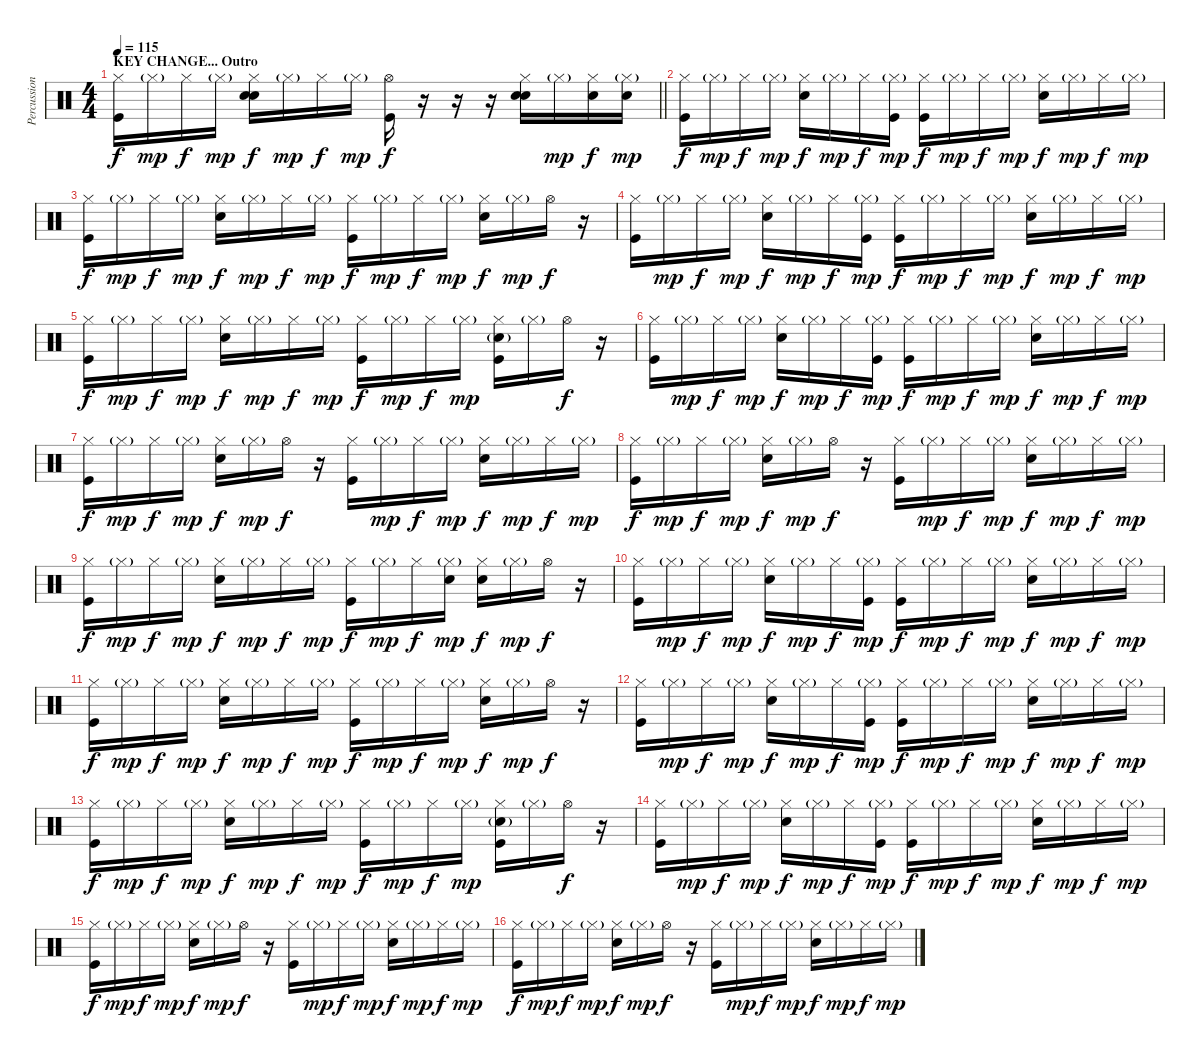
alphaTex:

\track ("Percussion" "Percussion") {instrument percussion bank 177}
\staff {score}
\articulation defaults
\ts (4 4)
\section ("" "KEY CHANGE... Outro")
\tempo 115
\clef neutral
\barLineRight lightlight
\ks c
("Hi-Hat (closed)" "Kick (hit)").16{dy f} "Hi-Hat (closed)"{g}.16{dy mp} "Hi-Hat (closed)".16{dy f} "Hi-Hat (closed)"{g}.16{dy mp} ("Hi-Hat (closed)" "Hand Clap (hit)" "Snare (hit) 2").16{dy f} "Hi-Hat (closed)"{g}.16{dy mp} "Hi-Hat (closed)".16{dy f} "Hi-Hat (closed)"{g}.16{dy mp} ("Hi-Hat (open)" "Kick (hit)").16{dy f} r.16 r.16 r.16 ("Hi-Hat (closed)" "Hand Clap (hit)" "Snare (hit) 2").16 "Hi-Hat (closed)"{g}.16{dy mp} ("Hi-Hat (closed)" "Snare (hit) 2").16{dy f} ("Hi-Hat (closed)"{g} "Snare (hit) 2").16{dy mp} |
("Hi-Hat (closed)" "Kick (hit)").16{dy f} "Hi-Hat (closed)"{g}.16{dy mp} "Hi-Hat (closed)".16{dy f} "Hi-Hat (closed)"{g}.16{dy mp} ("Hi-Hat (closed)" "Snare (hit) 2").16{dy f} "Hi-Hat (closed)"{g}.16{dy mp} "Hi-Hat (closed)".16{dy f} ("Hi-Hat (closed)"{g} "Kick (hit)").16{dy mp} ("Hi-Hat (closed)" "Kick (hit)").16{dy f} "Hi-Hat (closed)"{g}.16{dy mp} "Hi-Hat (closed)".16{dy f} "Hi-Hat (closed)"{g}.16{dy mp} ("Hi-Hat (closed)" "Snare (hit) 2").16{dy f} "Hi-Hat (closed)"{g}.16{dy mp} "Hi-Hat (closed)".16{dy f} "Hi-Hat (closed)"{g}.16{dy mp} |
("Hi-Hat (closed)" "Kick (hit)").16{dy f} "Hi-Hat (closed)"{g}.16{dy mp} "Hi-Hat (closed)".16{dy f} "Hi-Hat (closed)"{g}.16{dy mp} ("Hi-Hat (closed)" "Snare (hit) 2").16{dy f} "Hi-Hat (closed)"{g}.16{dy mp} "Hi-Hat (closed)".16{dy f} "Hi-Hat (closed)"{g}.16{dy mp} ("Hi-Hat (closed)" "Kick (hit)").16{dy f} "Hi-Hat (closed)"{g}.16{dy mp} "Hi-Hat (closed)".16{dy f} "Hi-Hat (closed)"{g}.16{dy mp} ("Hi-Hat (closed)" "Snare (hit) 2").16{dy f} "Hi-Hat (closed)"{g}.16{dy mp} "Hi-Hat (open)".16{dy f} r.16 |
("Hi-Hat (closed)" "Kick (hit)").16 "Hi-Hat (closed)"{g}.16{dy mp} "Hi-Hat (closed)".16{dy f} "Hi-Hat (closed)"{g}.16{dy mp} ("Hi-Hat (closed)" "Snare (hit) 2").16{dy f} "Hi-Hat (closed)"{g}.16{dy mp} "Hi-Hat (closed)".16{dy f} ("Hi-Hat (closed)"{g} "Kick (hit)").16{dy mp} ("Hi-Hat (closed)" "Kick (hit)").16{dy f} "Hi-Hat (closed)"{g}.16{dy mp} "Hi-Hat (closed)".16{dy f} "Hi-Hat (closed)"{g}.16{dy mp} ("Hi-Hat (closed)" "Snare (hit) 2").16{dy f} "Hi-Hat (closed)"{g}.16{dy mp} "Hi-Hat (closed)".16{dy f} "Hi-Hat (closed)"{g}.16{dy mp} |
("Hi-Hat (closed)" "Kick (hit)").16{dy f} "Hi-Hat (closed)"{g}.16{dy mp} "Hi-Hat (closed)".16{dy f} "Hi-Hat (closed)"{g}.16{dy mp} ("Hi-Hat (closed)" "Snare (hit) 2").16{dy f} "Hi-Hat (closed)"{g}.16{dy mp} "Hi-Hat (closed)".16{dy f} "Hi-Hat (closed)"{g}.16{dy mp} ("Hi-Hat (closed)" "Kick (hit)").16{dy f} "Hi-Hat (closed)"{g}.16{dy mp} "Hi-Hat (closed)".16{dy f} "Hi-Hat (closed)"{g}.16{dy mp} ("Hi-Hat (closed)" "Snare (hit) 2"{g} "Kick (hit)").16 "Hi-Hat (closed)"{g}.16 "Hi-Hat (open)".16{dy f} r.16 |
("Hi-Hat (closed)" "Kick (hit)").16 "Hi-Hat (closed)"{g}.16{dy mp} "Hi-Hat (closed)".16{dy f} "Hi-Hat (closed)"{g}.16{dy mp} ("Hi-Hat (closed)" "Snare (hit) 2").16{dy f} "Hi-Hat (closed)"{g}.16{dy mp} "Hi-Hat (closed)".16{dy f} ("Hi-Hat (closed)"{g} "Kick (hit)").16{dy mp} ("Hi-Hat (closed)" "Kick (hit)").16{dy f} "Hi-Hat (closed)"{g}.16{dy mp} "Hi-Hat (closed)".16{dy f} "Hi-Hat (closed)"{g}.16{dy mp} ("Hi-Hat (closed)" "Snare (hit) 2").16{dy f} "Hi-Hat (closed)"{g}.16{dy mp} "Hi-Hat (closed)".16{dy f} "Hi-Hat (closed)"{g}.16{dy mp} |
("Hi-Hat (closed)" "Kick (hit)").16{dy f} "Hi-Hat (closed)"{g}.16{dy mp} "Hi-Hat (closed)".16{dy f} "Hi-Hat (closed)"{g}.16{dy mp} ("Hi-Hat (closed)" "Snare (hit) 2").16{dy f} "Hi-Hat (closed)"{g}.16{dy mp} "Hi-Hat (open)".16{dy f} r.16 ("Hi-Hat (closed)" "Kick (hit)").16 "Hi-Hat (closed)"{g}.16{dy mp} "Hi-Hat (closed)".16{dy f} "Hi-Hat (closed)"{g}.16{dy mp} ("Hi-Hat (closed)" "Snare (hit) 2").16{dy f} "Hi-Hat (closed)"{g}.16{dy mp} "Hi-Hat (closed)".16{dy f} "Hi-Hat (closed)"{g}.16{dy mp} |
("Hi-Hat (closed)" "Kick (hit)").16{dy f} "Hi-Hat (closed)"{g}.16{dy mp} "Hi-Hat (closed)".16{dy f} "Hi-Hat (closed)"{g}.16{dy mp} ("Hi-Hat (closed)" "Snare (hit) 2").16{dy f} "Hi-Hat (closed)"{g}.16{dy mp} "Hi-Hat (open)".16{dy f} r.16 ("Hi-Hat (closed)" "Kick (hit)").16 "Hi-Hat (closed)"{g}.16{dy mp} "Hi-Hat (closed)".16{dy f} "Hi-Hat (closed)"{g}.16{dy mp} ("Hi-Hat (closed)" "Snare (hit) 2").16{dy f} "Hi-Hat (closed)"{g}.16{dy mp} "Hi-Hat (closed)".16{dy f} "Hi-Hat (closed)"{g}.16{dy mp} |
("Hi-Hat (closed)" "Kick (hit)").16{dy f} "Hi-Hat (closed)"{g}.16{dy mp} "Hi-Hat (closed)".16{dy f} "Hi-Hat (closed)"{g}.16{dy mp} ("Hi-Hat (closed)" "Snare (hit) 2").16{dy f} "Hi-Hat (closed)"{g}.16{dy mp} "Hi-Hat (closed)".16{dy f} "Hi-Hat (closed)"{g}.16{dy mp} ("Hi-Hat (closed)" "Kick (hit)").16{dy f} "Hi-Hat (closed)"{g}.16{dy mp} "Hi-Hat (closed)".16{dy f} ("Hi-Hat (closed)"{g} "Snare (hit) 2").16{dy mp} ("Hi-Hat (closed)" "Snare (hit) 2").16{dy f} "Hi-Hat (closed)"{g}.16{dy mp} "Hi-Hat (open)".16{dy f} r.16 |
("Hi-Hat (closed)" "Kick (hit)").16 "Hi-Hat (closed)"{g}.16{dy mp} "Hi-Hat (closed)".16{dy f} "Hi-Hat (closed)"{g}.16{dy mp} ("Hi-Hat (closed)" "Snare (hit) 2").16{dy f} "Hi-Hat (closed)"{g}.16{dy mp} "Hi-Hat (closed)".16{dy f} ("Hi-Hat (closed)"{g} "Kick (hit)").16{dy mp} ("Hi-Hat (closed)" "Kick (hit)").16{dy f} "Hi-Hat (closed)"{g}.16{dy mp} "Hi-Hat (closed)".16{dy f} "Hi-Hat (closed)"{g}.16{dy mp} ("Hi-Hat (closed)" "Snare (hit) 2").16{dy f} "Hi-Hat (closed)"{g}.16{dy mp} "Hi-Hat (closed)".16{dy f} "Hi-Hat (closed)"{g}.16{dy mp} |
("Hi-Hat (closed)" "Kick (hit)").16{dy f} "Hi-Hat (closed)"{g}.16{dy mp} "Hi-Hat (closed)".16{dy f} "Hi-Hat (closed)"{g}.16{dy mp} ("Hi-Hat (closed)" "Snare (hit) 2").16{dy f} "Hi-Hat (closed)"{g}.16{dy mp} "Hi-Hat (closed)".16{dy f} "Hi-Hat (closed)"{g}.16{dy mp} ("Hi-Hat (closed)" "Kick (hit)").16{dy f} "Hi-Hat (closed)"{g}.16{dy mp} "Hi-Hat (closed)".16{dy f} "Hi-Hat (closed)"{g}.16{dy mp} ("Hi-Hat (closed)" "Snare (hit) 2").16{dy f} "Hi-Hat (closed)"{g}.16{dy mp} "Hi-Hat (open)".16{dy f} r.16 |
("Hi-Hat (closed)" "Kick (hit)").16 "Hi-Hat (closed)"{g}.16{dy mp} "Hi-Hat (closed)".16{dy f} "Hi-Hat (closed)"{g}.16{dy mp} ("Hi-Hat (closed)" "Snare (hit) 2").16{dy f} "Hi-Hat (closed)"{g}.16{dy mp} "Hi-Hat (closed)".16{dy f} ("Hi-Hat (closed)"{g} "Kick (hit)").16{dy mp} ("Hi-Hat (closed)" "Kick (hit)").16{dy f} "Hi-Hat (closed)"{g}.16{dy mp} "Hi-Hat (closed)".16{dy f} "Hi-Hat (closed)"{g}.16{dy mp} ("Hi-Hat (closed)" "Snare (hit) 2").16{dy f} "Hi-Hat (closed)"{g}.16{dy mp} "Hi-Hat (closed)".16{dy f} "Hi-Hat (closed)"{g}.16{dy mp} |
("Hi-Hat (closed)" "Kick (hit)").16{dy f} "Hi-Hat (closed)"{g}.16{dy mp} "Hi-Hat (closed)".16{dy f} "Hi-Hat (closed)"{g}.16{dy mp} ("Hi-Hat (closed)" "Snare (hit) 2").16{dy f} "Hi-Hat (closed)"{g}.16{dy mp} "Hi-Hat (closed)".16{dy f} "Hi-Hat (closed)"{g}.16{dy mp} ("Hi-Hat (closed)" "Kick (hit)").16{dy f} "Hi-Hat (closed)"{g}.16{dy mp} "Hi-Hat (closed)".16{dy f} "Hi-Hat (closed)"{g}.16{dy mp} ("Hi-Hat (closed)" "Snare (hit) 2"{g} "Kick (hit)").16 "Hi-Hat (closed)"{g}.16 "Hi-Hat (open)".16{dy f} r.16 |
("Hi-Hat (closed)" "Kick (hit)").16 "Hi-Hat (closed)"{g}.16{dy mp} "Hi-Hat (closed)".16{dy f} "Hi-Hat (closed)"{g}.16{dy mp} ("Hi-Hat (closed)" "Snare (hit) 2").16{dy f} "Hi-Hat (closed)"{g}.16{dy mp} "Hi-Hat (closed)".16{dy f} ("Hi-Hat (closed)"{g} "Kick (hit)").16{dy mp} ("Hi-Hat (closed)" "Kick (hit)").16{dy f} "Hi-Hat (closed)"{g}.16{dy mp} "Hi-Hat (closed)".16{dy f} "Hi-Hat (closed)"{g}.16{dy mp} ("Hi-Hat (closed)" "Snare (hit) 2").16{dy f} "Hi-Hat (closed)"{g}.16{dy mp} "Hi-Hat (closed)".16{dy f} "Hi-Hat (closed)"{g}.16{dy mp} |
("Hi-Hat (closed)" "Kick (hit)").16{dy f} "Hi-Hat (closed)"{g}.16{dy mp} "Hi-Hat (closed)".16{dy f} "Hi-Hat (closed)"{g}.16{dy mp} ("Hi-Hat (closed)" "Snare (hit) 2").16{dy f} "Hi-Hat (closed)"{g}.16{dy mp} "Hi-Hat (open)".16{dy f} r.16 ("Hi-Hat (closed)" "Kick (hit)").16 "Hi-Hat (closed)"{g}.16{dy mp} "Hi-Hat (closed)".16{dy f} "Hi-Hat (closed)"{g}.16{dy mp} ("Hi-Hat (closed)" "Snare (hit) 2").16{dy f} "Hi-Hat (closed)"{g}.16{dy mp} "Hi-Hat (closed)".16{dy f} "Hi-Hat (closed)"{g}.16{dy mp} |
("Hi-Hat (closed)" "Kick (hit)").16{dy f} "Hi-Hat (closed)"{g}.16{dy mp} "Hi-Hat (closed)".16{dy f} "Hi-Hat (closed)"{g}.16{dy mp} ("Hi-Hat (closed)" "Snare (hit) 2").16{dy f} "Hi-Hat (closed)"{g}.16{dy mp} "Hi-Hat (open)".16{dy f} r.16 ("Hi-Hat (closed)" "Kick (hit)").16 "Hi-Hat (closed)"{g}.16{dy mp} "Hi-Hat (closed)".16{dy f} "Hi-Hat (closed)"{g}.16{dy mp} ("Hi-Hat (closed)" "Snare (hit) 2").16{dy f} "Hi-Hat (closed)"{g}.16{dy mp} "Hi-Hat (closed)".16{dy f} "Hi-Hat (closed)"{g}.16{dy mp}
